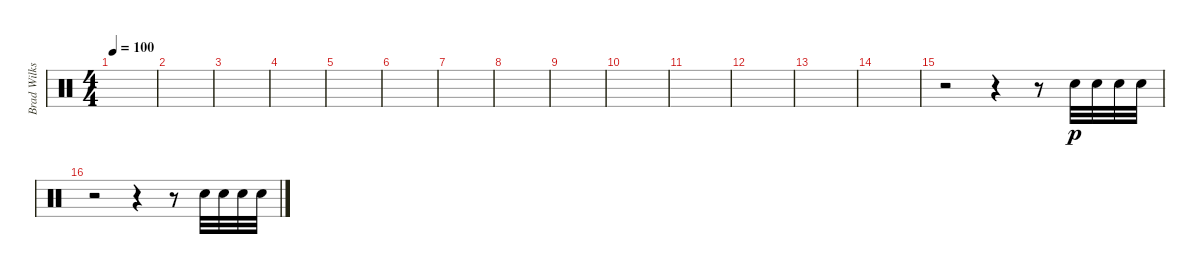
\track ("Brad Wilks (some extras)" "Brad Wilks") {instrument percussion}
\staff {score}
\articulation defaults
\ts (4 4)
\tempo 100
\clef neutral
\ks c
|
|
|
|
|
|
|
|
|
|
|
|
|
|
r.2 r.4 r.8 "Electric Snare (hit)".32{dy p} "Electric Snare (hit)".32 "Electric Snare (hit)".32 "Electric Snare (hit)".32 |
r.2 r.4 r.8 "Electric Snare (hit)".32 "Electric Snare (hit)".32 "Electric Snare (hit)".32 "Electric Snare (hit)".32
